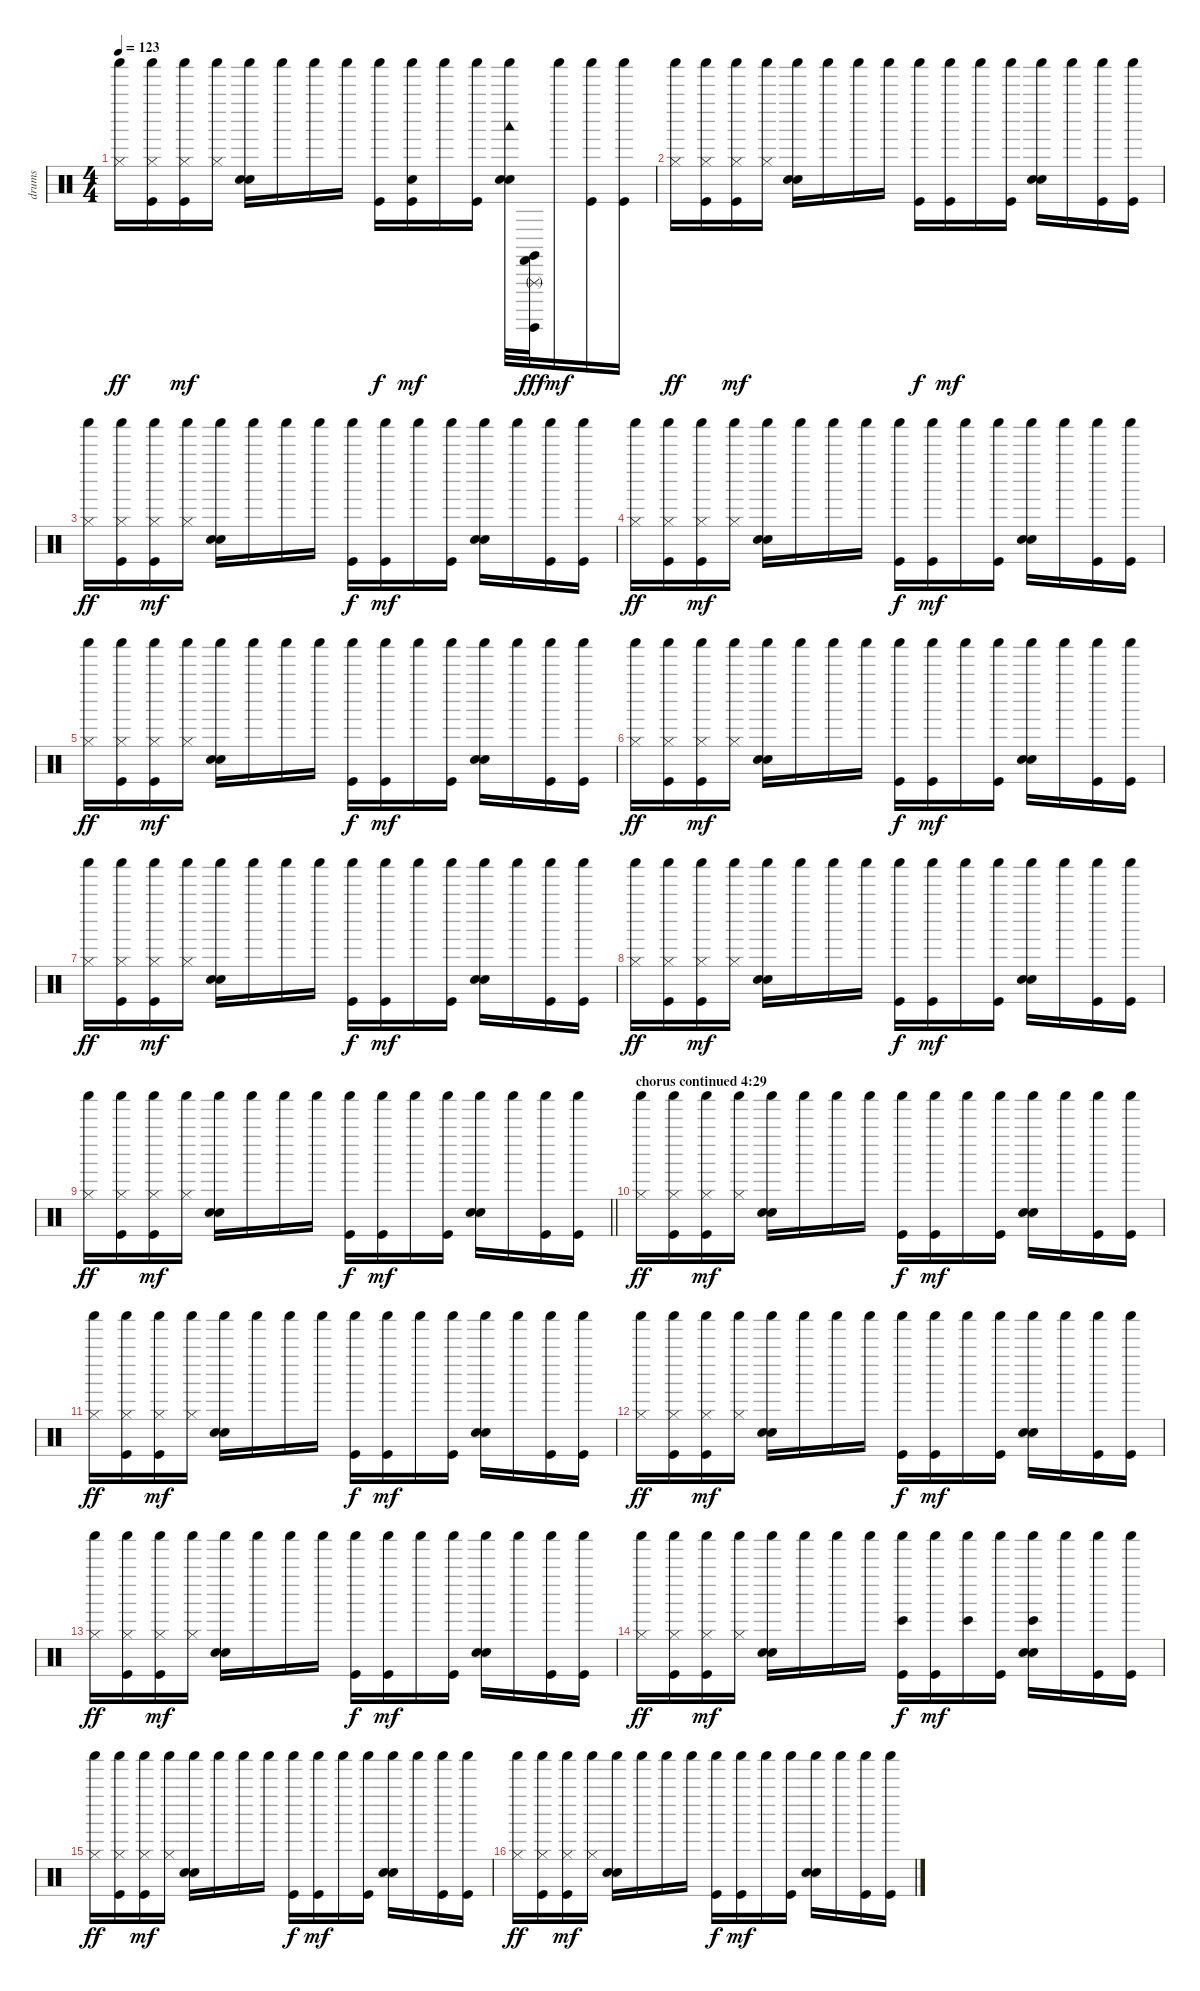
\track ("drums" "drums") {instrument percussion}
\staff {score}
\articulation defaults
\ts (4 4)
\tempo 123
\clef neutral
\ks c
("Shaker (hit)" "Hi-Hat (closed)").16{dy ff} ("Shaker (hit)" "Hi-Hat (closed)" "Kick (hit)").16 ("Shaker (hit)" "Hi-Hat (closed)" "Kick (hit)").16{dy mf} ("Shaker (hit)" "Hi-Hat (closed)").16 ("Shaker (hit)" "Electric Snare (hit)" "Hand Clap (hit)").16 "Shaker (hit)".16 "Shaker (hit)".16 "Shaker (hit)".16 ("Shaker (hit)" "Kick (hit)").16{dy f} ("Shaker (hit)" "Hand Clap (hit)" "Kick (hit)").16{dy mf} "Shaker (hit)".16 ("Shaker (hit)" "Kick (hit)").16 ("Shaker (hit)" "Electric Snare (hit)" "Hand Clap (hit)" "Woodblock low (hit)").32 ("Claves (hit)" "Castanets (hit)" "Surdo (hit)" "Triangle (rnute)").32{dy fff} "Shaker (hit)".16{dy mf} ("Shaker (hit)" "Kick (hit)").16 ("Shaker (hit)" "Kick (hit)").16 |
("Shaker (hit)" "Hi-Hat (closed)").16{dy ff} ("Shaker (hit)" "Hi-Hat (closed)" "Kick (hit)").16 ("Shaker (hit)" "Hi-Hat (closed)" "Kick (hit)").16{dy mf} ("Shaker (hit)" "Hi-Hat (closed)").16 ("Shaker (hit)" "Electric Snare (hit)" "Hand Clap (hit)").16 "Shaker (hit)".16 "Shaker (hit)".16 "Shaker (hit)".16 ("Shaker (hit)" "Kick (hit)").16{dy f} ("Shaker (hit)" "Kick (hit)").16{dy mf} "Shaker (hit)".16 ("Shaker (hit)" "Kick (hit)").16 ("Shaker (hit)" "Electric Snare (hit)" "Hand Clap (hit)").16 "Shaker (hit)".16 ("Shaker (hit)" "Kick (hit)").16 ("Shaker (hit)" "Kick (hit)").16 |
("Shaker (hit)" "Hi-Hat (closed)").16{dy ff} ("Shaker (hit)" "Hi-Hat (closed)" "Kick (hit)").16 ("Shaker (hit)" "Hi-Hat (closed)" "Kick (hit)").16{dy mf} ("Shaker (hit)" "Hi-Hat (closed)").16 ("Shaker (hit)" "Electric Snare (hit)" "Hand Clap (hit)").16 "Shaker (hit)".16 "Shaker (hit)".16 "Shaker (hit)".16 ("Shaker (hit)" "Kick (hit)").16{dy f} ("Shaker (hit)" "Kick (hit)").16{dy mf} "Shaker (hit)".16 ("Shaker (hit)" "Kick (hit)").16 ("Shaker (hit)" "Electric Snare (hit)" "Hand Clap (hit)").16 "Shaker (hit)".16 ("Shaker (hit)" "Kick (hit)").16 ("Shaker (hit)" "Kick (hit)").16 |
("Shaker (hit)" "Hi-Hat (closed)").16{dy ff} ("Shaker (hit)" "Hi-Hat (closed)" "Kick (hit)").16 ("Shaker (hit)" "Hi-Hat (closed)" "Kick (hit)").16{dy mf} ("Shaker (hit)" "Hi-Hat (closed)").16 ("Shaker (hit)" "Electric Snare (hit)" "Hand Clap (hit)").16 "Shaker (hit)".16 "Shaker (hit)".16 "Shaker (hit)".16 ("Shaker (hit)" "Kick (hit)").16{dy f} ("Shaker (hit)" "Kick (hit)").16{dy mf} "Shaker (hit)".16 ("Shaker (hit)" "Kick (hit)").16 ("Shaker (hit)" "Electric Snare (hit)" "Hand Clap (hit)").16 "Shaker (hit)".16 ("Shaker (hit)" "Kick (hit)").16 ("Shaker (hit)" "Kick (hit)").16 |
("Shaker (hit)" "Hi-Hat (closed)").16{dy ff} ("Shaker (hit)" "Hi-Hat (closed)" "Kick (hit)").16 ("Shaker (hit)" "Hi-Hat (closed)" "Kick (hit)").16{dy mf} ("Shaker (hit)" "Hi-Hat (closed)").16 ("Shaker (hit)" "Electric Snare (hit)" "Hand Clap (hit)").16 "Shaker (hit)".16 "Shaker (hit)".16 "Shaker (hit)".16 ("Shaker (hit)" "Kick (hit)").16{dy f} ("Shaker (hit)" "Kick (hit)").16{dy mf} "Shaker (hit)".16 ("Shaker (hit)" "Kick (hit)").16 ("Shaker (hit)" "Electric Snare (hit)" "Hand Clap (hit)").16 "Shaker (hit)".16 ("Shaker (hit)" "Kick (hit)").16 ("Shaker (hit)" "Kick (hit)").16 |
("Shaker (hit)" "Hi-Hat (closed)").16{dy ff} ("Shaker (hit)" "Hi-Hat (closed)" "Kick (hit)").16 ("Shaker (hit)" "Hi-Hat (closed)" "Kick (hit)").16{dy mf} ("Shaker (hit)" "Hi-Hat (closed)").16 ("Shaker (hit)" "Electric Snare (hit)" "Hand Clap (hit)").16 "Shaker (hit)".16 "Shaker (hit)".16 "Shaker (hit)".16 ("Shaker (hit)" "Kick (hit)").16{dy f} ("Shaker (hit)" "Kick (hit)").16{dy mf} "Shaker (hit)".16 ("Shaker (hit)" "Kick (hit)").16 ("Shaker (hit)" "Electric Snare (hit)" "Hand Clap (hit)").16 "Shaker (hit)".16 ("Shaker (hit)" "Kick (hit)").16 ("Shaker (hit)" "Kick (hit)").16 |
("Shaker (hit)" "Hi-Hat (closed)").16{dy ff} ("Shaker (hit)" "Hi-Hat (closed)" "Kick (hit)").16 ("Shaker (hit)" "Hi-Hat (closed)" "Kick (hit)").16{dy mf} ("Shaker (hit)" "Hi-Hat (closed)").16 ("Shaker (hit)" "Electric Snare (hit)" "Hand Clap (hit)").16 "Shaker (hit)".16 "Shaker (hit)".16 "Shaker (hit)".16 ("Shaker (hit)" "Kick (hit)").16{dy f} ("Shaker (hit)" "Kick (hit)").16{dy mf} "Shaker (hit)".16 ("Shaker (hit)" "Kick (hit)").16 ("Shaker (hit)" "Electric Snare (hit)" "Hand Clap (hit)").16 "Shaker (hit)".16 ("Shaker (hit)" "Kick (hit)").16 ("Shaker (hit)" "Kick (hit)").16 |
("Shaker (hit)" "Hi-Hat (closed)").16{dy ff} ("Shaker (hit)" "Hi-Hat (closed)" "Kick (hit)").16 ("Shaker (hit)" "Hi-Hat (closed)" "Kick (hit)").16{dy mf} ("Shaker (hit)" "Hi-Hat (closed)").16 ("Shaker (hit)" "Electric Snare (hit)" "Hand Clap (hit)").16 "Shaker (hit)".16 "Shaker (hit)".16 "Shaker (hit)".16 ("Shaker (hit)" "Kick (hit)").16{dy f} ("Shaker (hit)" "Kick (hit)").16{dy mf} "Shaker (hit)".16 ("Shaker (hit)" "Kick (hit)").16 ("Shaker (hit)" "Electric Snare (hit)" "Hand Clap (hit)").16 "Shaker (hit)".16 ("Shaker (hit)" "Kick (hit)").16 ("Shaker (hit)" "Kick (hit)").16 |
\barLineRight lightlight
("Shaker (hit)" "Hi-Hat (closed)").16{dy ff} ("Shaker (hit)" "Hi-Hat (closed)" "Kick (hit)").16 ("Shaker (hit)" "Hi-Hat (closed)" "Kick (hit)").16{dy mf} ("Shaker (hit)" "Hi-Hat (closed)").16 ("Shaker (hit)" "Electric Snare (hit)" "Hand Clap (hit)").16 "Shaker (hit)".16 "Shaker (hit)".16 "Shaker (hit)".16 ("Shaker (hit)" "Kick (hit)").16{dy f} ("Shaker (hit)" "Kick (hit)").16{dy mf} "Shaker (hit)".16 ("Shaker (hit)" "Kick (hit)").16 ("Shaker (hit)" "Electric Snare (hit)" "Hand Clap (hit)").16 "Shaker (hit)".16 ("Shaker (hit)" "Kick (hit)").16 ("Shaker (hit)" "Kick (hit)").16 |
\section ("" "chorus continued 4:29")
("Shaker (hit)" "Hi-Hat (closed)").16{dy ff} ("Shaker (hit)" "Hi-Hat (closed)" "Kick (hit)").16 ("Shaker (hit)" "Hi-Hat (closed)" "Kick (hit)").16{dy mf} ("Shaker (hit)" "Hi-Hat (closed)").16 ("Shaker (hit)" "Electric Snare (hit)" "Hand Clap (hit)").16 "Shaker (hit)".16 "Shaker (hit)".16 "Shaker (hit)".16 ("Shaker (hit)" "Kick (hit)").16{dy f} ("Shaker (hit)" "Kick (hit)").16{dy mf} "Shaker (hit)".16 ("Shaker (hit)" "Kick (hit)").16 ("Shaker (hit)" "Electric Snare (hit)" "Hand Clap (hit)").16 "Shaker (hit)".16 ("Shaker (hit)" "Kick (hit)").16 ("Shaker (hit)" "Kick (hit)").16 |
("Shaker (hit)" "Hi-Hat (closed)").16{dy ff} ("Shaker (hit)" "Hi-Hat (closed)" "Kick (hit)").16 ("Shaker (hit)" "Hi-Hat (closed)" "Kick (hit)").16{dy mf} ("Shaker (hit)" "Hi-Hat (closed)").16 ("Shaker (hit)" "Electric Snare (hit)" "Hand Clap (hit)").16 "Shaker (hit)".16 "Shaker (hit)".16 "Shaker (hit)".16 ("Shaker (hit)" "Kick (hit)").16{dy f} ("Shaker (hit)" "Kick (hit)").16{dy mf} "Shaker (hit)".16 ("Shaker (hit)" "Kick (hit)").16 ("Shaker (hit)" "Electric Snare (hit)" "Hand Clap (hit)").16 "Shaker (hit)".16 ("Shaker (hit)" "Kick (hit)").16 ("Shaker (hit)" "Kick (hit)").16 |
("Shaker (hit)" "Hi-Hat (closed)").16{dy ff} ("Shaker (hit)" "Hi-Hat (closed)" "Kick (hit)").16 ("Shaker (hit)" "Hi-Hat (closed)" "Kick (hit)").16{dy mf} ("Shaker (hit)" "Hi-Hat (closed)").16 ("Shaker (hit)" "Electric Snare (hit)" "Hand Clap (hit)").16 "Shaker (hit)".16 "Shaker (hit)".16 "Shaker (hit)".16 ("Shaker (hit)" "Kick (hit)").16{dy f} ("Shaker (hit)" "Kick (hit)").16{dy mf} "Shaker (hit)".16 ("Shaker (hit)" "Kick (hit)").16 ("Shaker (hit)" "Electric Snare (hit)" "Hand Clap (hit)").16 "Shaker (hit)".16 ("Shaker (hit)" "Kick (hit)").16 ("Shaker (hit)" "Kick (hit)").16 |
("Shaker (hit)" "Hi-Hat (closed)").16{dy ff} ("Shaker (hit)" "Hi-Hat (closed)" "Kick (hit)").16 ("Shaker (hit)" "Hi-Hat (closed)" "Kick (hit)").16{dy mf} ("Shaker (hit)" "Hi-Hat (closed)").16 ("Shaker (hit)" "Electric Snare (hit)" "Hand Clap (hit)").16 "Shaker (hit)".16 "Shaker (hit)".16 "Shaker (hit)".16 ("Shaker (hit)" "Kick (hit)").16{dy f} ("Shaker (hit)" "Kick (hit)").16{dy mf} "Shaker (hit)".16 ("Shaker (hit)" "Kick (hit)").16 ("Shaker (hit)" "Electric Snare (hit)" "Hand Clap (hit)").16 "Shaker (hit)".16 ("Shaker (hit)" "Kick (hit)").16 ("Shaker (hit)" "Kick (hit)").16 |
("Shaker (hit)" "Hi-Hat (closed)").16{dy ff} ("Shaker (hit)" "Hi-Hat (closed)" "Kick (hit)").16 ("Shaker (hit)" "Hi-Hat (closed)" "Kick (hit)").16{dy mf} ("Shaker (hit)" "Hi-Hat (closed)").16 ("Shaker (hit)" "Electric Snare (hit)" "Hand Clap (hit)").16 "Shaker (hit)".16 "Shaker (hit)".16 "Shaker (hit)".16 ("Shaker (hit)" "Bongo High (hit)" "Kick (hit)").16{dy f} ("Shaker (hit)" "Kick (hit)").16{dy mf} ("Shaker (hit)" "Bongo High (hit)").16 ("Shaker (hit)" "Kick (hit)").16 ("Shaker (hit)" "Electric Snare (hit)" "Hand Clap (hit)" "Bongo High (hit)").16 "Shaker (hit)".16 ("Shaker (hit)" "Kick (hit)").16 ("Shaker (hit)" "Kick (hit)").16 |
("Shaker (hit)" "Hi-Hat (closed)").16{dy ff} ("Shaker (hit)" "Hi-Hat (closed)" "Kick (hit)").16 ("Shaker (hit)" "Hi-Hat (closed)" "Kick (hit)").16{dy mf} ("Shaker (hit)" "Hi-Hat (closed)").16 ("Shaker (hit)" "Electric Snare (hit)" "Hand Clap (hit)").16 "Shaker (hit)".16 "Shaker (hit)".16 "Shaker (hit)".16 ("Shaker (hit)" "Kick (hit)").16{dy f} ("Shaker (hit)" "Kick (hit)").16{dy mf} "Shaker (hit)".16 ("Shaker (hit)" "Kick (hit)").16 ("Shaker (hit)" "Electric Snare (hit)" "Hand Clap (hit)").16 "Shaker (hit)".16 ("Shaker (hit)" "Kick (hit)").16 ("Shaker (hit)" "Kick (hit)").16 |
("Shaker (hit)" "Hi-Hat (closed)").16{dy ff} ("Shaker (hit)" "Hi-Hat (closed)" "Kick (hit)").16 ("Shaker (hit)" "Hi-Hat (closed)" "Kick (hit)").16{dy mf} ("Shaker (hit)" "Hi-Hat (closed)").16 ("Shaker (hit)" "Electric Snare (hit)" "Hand Clap (hit)").16 "Shaker (hit)".16 "Shaker (hit)".16 "Shaker (hit)".16 ("Shaker (hit)" "Kick (hit)").16{dy f} ("Shaker (hit)" "Kick (hit)").16{dy mf} "Shaker (hit)".16 ("Shaker (hit)" "Kick (hit)").16 ("Shaker (hit)" "Electric Snare (hit)" "Hand Clap (hit)").16 "Shaker (hit)".16 ("Shaker (hit)" "Kick (hit)").16 ("Shaker (hit)" "Kick (hit)").16
